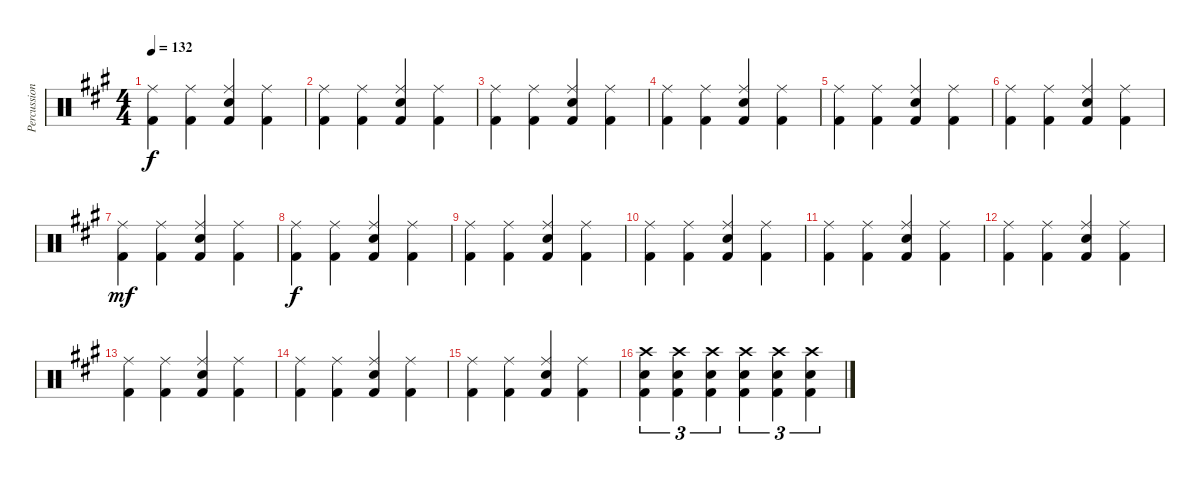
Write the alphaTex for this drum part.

\track ("Percussion" "Percussion") {instrument percussion}
\staff {score}
\articulation defaults
\ts (4 4)
\tempo 132
\clef neutral
\ks a
("Kick (hit) 2" "Ride (middle)").4{dy f} ("Kick (hit) 2" "Ride (middle)").4 ("Kick (hit) 2" "Electric Snare (hit)" "Ride (middle)").4 ("Kick (hit) 2" "Ride (middle)").4 |
("Kick (hit) 2" "Ride (middle)").4 ("Kick (hit) 2" "Ride (middle)").4 ("Kick (hit) 2" "Electric Snare (hit)" "Ride (middle)").4 ("Kick (hit) 2" "Ride (middle)").4 |
("Kick (hit) 2" "Ride (middle)").4 ("Kick (hit) 2" "Ride (middle)").4 ("Kick (hit) 2" "Electric Snare (hit)" "Ride (middle)").4 ("Kick (hit) 2" "Ride (middle)").4 |
("Kick (hit) 2" "Ride (middle)").4 ("Kick (hit) 2" "Ride (middle)").4 ("Kick (hit) 2" "Electric Snare (hit)" "Ride (middle)").4 ("Kick (hit) 2" "Ride (middle)").4 |
("Kick (hit) 2" "Ride (middle)").4 ("Kick (hit) 2" "Ride (middle)").4 ("Kick (hit) 2" "Electric Snare (hit)" "Ride (middle)").4 ("Kick (hit) 2" "Ride (middle)").4 |
("Kick (hit) 2" "Ride (middle)").4 ("Kick (hit) 2" "Ride (middle)").4 ("Kick (hit) 2" "Electric Snare (hit)" "Ride (middle)").4 ("Kick (hit) 2" "Ride (middle)").4 |
("Kick (hit) 2" "Ride (middle)").4{dy mf} ("Kick (hit) 2" "Ride (middle)").4 ("Kick (hit) 2" "Electric Snare (hit)" "Ride (middle)").4 ("Kick (hit) 2" "Ride (middle)").4 |
("Kick (hit) 2" "Ride (middle)").4{dy f} ("Kick (hit) 2" "Ride (middle)").4 ("Kick (hit) 2" "Electric Snare (hit)" "Ride (middle)").4 ("Kick (hit) 2" "Ride (middle)").4 |
("Kick (hit) 2" "Ride (middle)").4 ("Kick (hit) 2" "Ride (middle)").4 ("Kick (hit) 2" "Electric Snare (hit)" "Ride (middle)").4 ("Kick (hit) 2" "Ride (middle)").4 |
("Kick (hit) 2" "Ride (middle)").4 ("Kick (hit) 2" "Ride (middle)").4 ("Kick (hit) 2" "Electric Snare (hit)" "Ride (middle)").4 ("Kick (hit) 2" "Ride (middle)").4 |
("Kick (hit) 2" "Ride (middle)").4 ("Kick (hit) 2" "Ride (middle)").4 ("Kick (hit) 2" "Electric Snare (hit)" "Ride (middle)").4 ("Kick (hit) 2" "Ride (middle)").4 |
("Kick (hit) 2" "Ride (middle)").4 ("Kick (hit) 2" "Ride (middle)").4 ("Kick (hit) 2" "Electric Snare (hit)" "Ride (middle)").4 ("Kick (hit) 2" "Ride (middle)").4 |
("Kick (hit) 2" "Ride (middle)").4 ("Kick (hit) 2" "Ride (middle)").4 ("Kick (hit) 2" "Electric Snare (hit)" "Ride (middle)").4 ("Kick (hit) 2" "Ride (middle)").4 |
("Kick (hit) 2" "Ride (middle)").4 ("Kick (hit) 2" "Ride (middle)").4 ("Kick (hit) 2" "Electric Snare (hit)" "Ride (middle)").4 ("Kick (hit) 2" "Ride (middle)").4 |
("Kick (hit) 2" "Ride (middle)").4 ("Kick (hit) 2" "Ride (middle)").4 ("Kick (hit) 2" "Electric Snare (hit)" "Ride (middle)").4 ("Kick (hit) 2" "Ride (middle)").4 |
("Kick (hit) 2" "Electric Snare (hit)" "Crash high (hit)").4{tu (3 2)} ("Kick (hit) 2" "Electric Snare (hit)" "Crash high (hit)").4{tu (3 2)} ("Kick (hit) 2" "Electric Snare (hit)" "Crash high (hit)").4{tu (3 2)} ("Kick (hit) 2" "Electric Snare (hit)" "Crash high (hit)").4{tu (3 2)} ("Kick (hit) 2" "Electric Snare (hit)" "Crash high (hit)").4{tu (3 2)} ("Kick (hit) 2" "Electric Snare (hit)" "Crash high (hit)").4{tu (3 2)}
